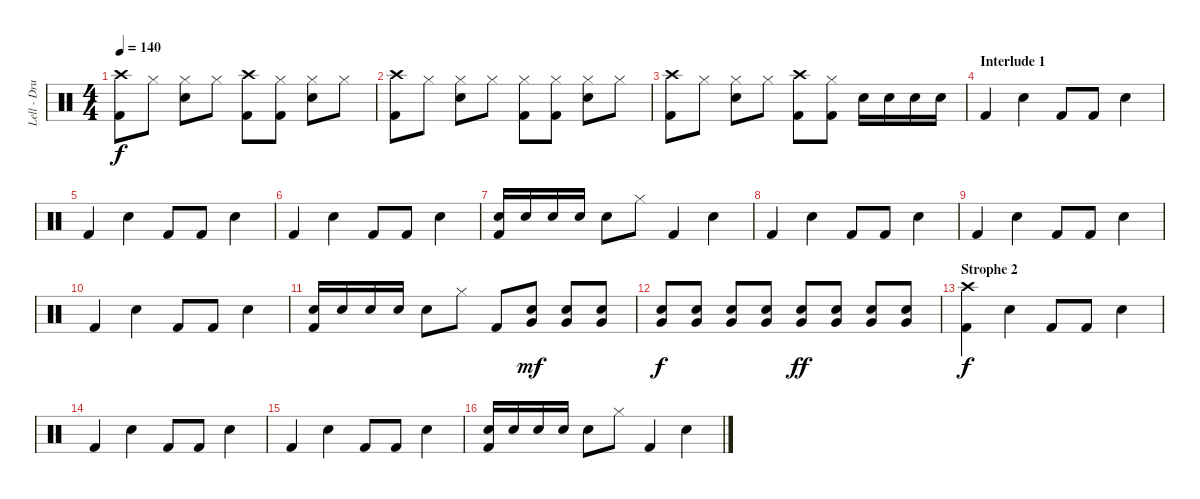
\track ("Lell - Drums" "Lell - Dru") {instrument percussion}
\staff {score}
\articulation defaults
\ts (4 4)
\tempo 140
\clef neutral
\ks c
("Crash high (hit)" "Kick (hit) 2").8{dy f} "Hi-Hat (closed)".8 ("Hi-Hat (closed)" "Snare (hit) 2").8 "Hi-Hat (closed)".8 ("Crash high (hit)" "Kick (hit) 2").8 ("Hi-Hat (closed)" "Kick (hit) 2").8 ("Hi-Hat (closed)" "Snare (hit) 2").8 "Hi-Hat (closed)".8 |
("Crash high (hit)" "Kick (hit) 2").8 "Hi-Hat (closed)".8 ("Hi-Hat (closed)" "Snare (hit) 2").8 "Hi-Hat (closed)".8 ("Hi-Hat (closed)" "Kick (hit) 2").8 ("Hi-Hat (closed)" "Kick (hit) 2").8 ("Hi-Hat (closed)" "Snare (hit) 2").8 "Hi-Hat (closed)".8 |
("Crash high (hit)" "Kick (hit) 2").8 "Hi-Hat (closed)".8 ("Hi-Hat (closed)" "Snare (hit) 2").8 "Hi-Hat (closed)".8 ("Crash high (hit)" "Kick (hit) 2").8 ("Hi-Hat (closed)" "Kick (hit) 2").8 "Snare (hit) 2".16 "Snare (hit) 2".16 "Snare (hit) 2".16 "Snare (hit) 2".16 |
\section ("" "Interlude 1")
"Kick (hit) 2".4 "Snare (hit) 2".4 "Kick (hit) 2".8 "Kick (hit) 2".8 "Snare (hit) 2".4 |
"Kick (hit) 2".4 "Snare (hit) 2".4 "Kick (hit) 2".8 "Kick (hit) 2".8 "Snare (hit) 2".4 |
"Kick (hit) 2".4 "Snare (hit) 2".4 "Kick (hit) 2".8 "Kick (hit) 2".8 "Snare (hit) 2".4 |
("Snare (hit) 2" "Kick (hit) 2").16 "Snare (hit) 2".16 "Snare (hit) 2".16 "Snare (hit) 2".16 "Snare (hit) 2".8 "Hi-Hat (closed)".8 "Kick (hit) 2".4 "Snare (hit) 2".4 |
"Kick (hit) 2".4 "Snare (hit) 2".4 "Kick (hit) 2".8 "Kick (hit) 2".8 "Snare (hit) 2".4 |
"Kick (hit) 2".4 "Snare (hit) 2".4 "Kick (hit) 2".8 "Kick (hit) 2".8 "Snare (hit) 2".4 |
"Kick (hit) 2".4 "Snare (hit) 2".4 "Kick (hit) 2".8 "Kick (hit) 2".8 "Snare (hit) 2".4 |
("Snare (hit) 2" "Kick (hit) 2").16 "Snare (hit) 2".16 "Snare (hit) 2".16 "Snare (hit) 2".16 "Snare (hit) 2".8 "Hi-Hat (closed)".8 "Kick (hit) 2".8 ("Very Low Tom (hit)" "Snare (hit) 2").8{dy mf} ("Very Low Tom (hit)" "Snare (hit) 2").8 ("Very Low Tom (hit)" "Snare (hit) 2").8 |
("Very Low Tom (hit)" "Snare (hit) 2").8{dy f} ("Very Low Tom (hit)" "Snare (hit) 2").8 ("Very Low Tom (hit)" "Snare (hit) 2").8 ("Very Low Tom (hit)" "Snare (hit) 2").8 ("Very Low Tom (hit)" "Snare (hit) 2").8{dy ff} ("Very Low Tom (hit)" "Snare (hit) 2").8 ("Very Low Tom (hit)" "Snare (hit) 2").8 ("Very Low Tom (hit)" "Snare (hit) 2").8 |
\section ("" "Strophe 2")
("Crash high (hit)" "Kick (hit) 2").4{dy f} "Snare (hit) 2".4 "Kick (hit) 2".8 "Kick (hit) 2".8 "Snare (hit) 2".4 |
"Kick (hit) 2".4 "Snare (hit) 2".4 "Kick (hit) 2".8 "Kick (hit) 2".8 "Snare (hit) 2".4 |
"Kick (hit) 2".4 "Snare (hit) 2".4 "Kick (hit) 2".8 "Kick (hit) 2".8 "Snare (hit) 2".4 |
("Snare (hit) 2" "Kick (hit) 2").16 "Snare (hit) 2".16 "Snare (hit) 2".16 "Snare (hit) 2".16 "Snare (hit) 2".8 "Hi-Hat (closed)".8 "Kick (hit) 2".4 "Snare (hit) 2".4
